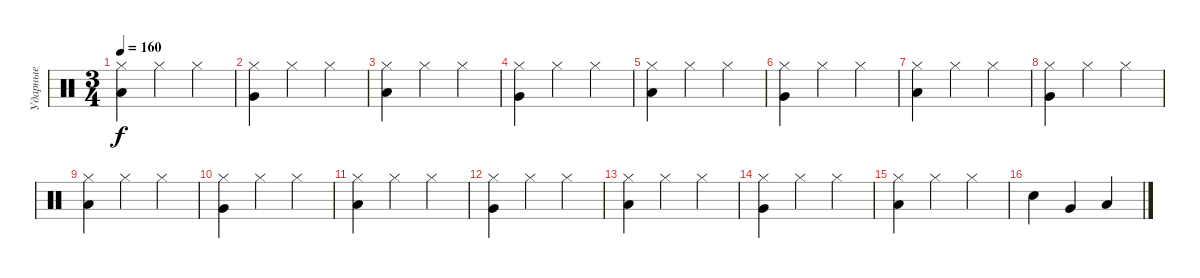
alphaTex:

\track ("Ударные" "Ударные") {instrument percussion}
\staff {score}
\articulation defaults
\ts (3 4)
\tempo 160
\clef neutral
\ks c
("Hi-Hat (closed)" "Low Floor Tom (hit)").4{dy f} "Hi-Hat (closed)".4 "Hi-Hat (closed)".4 |
("Hi-Hat (closed)" "Very Low Tom (hit)").4 "Hi-Hat (closed)".4 "Hi-Hat (closed)".4 |
("Hi-Hat (closed)" "Low Floor Tom (hit)").4 "Hi-Hat (closed)".4 "Hi-Hat (closed)".4 |
("Hi-Hat (closed)" "Very Low Tom (hit)").4 "Hi-Hat (closed)".4 "Hi-Hat (closed)".4 |
("Hi-Hat (closed)" "Low Floor Tom (hit)").4 "Hi-Hat (closed)".4 "Hi-Hat (closed)".4 |
("Hi-Hat (closed)" "Very Low Tom (hit)").4 "Hi-Hat (closed)".4 "Hi-Hat (closed)".4 |
("Hi-Hat (closed)" "Low Floor Tom (hit)").4 "Hi-Hat (closed)".4 "Hi-Hat (closed)".4 |
("Hi-Hat (closed)" "Very Low Tom (hit)").4 "Hi-Hat (closed)".4 "Hi-Hat (closed)".4 |
("Hi-Hat (closed)" "Low Floor Tom (hit)").4 "Hi-Hat (closed)".4 "Hi-Hat (closed)".4 |
("Hi-Hat (closed)" "Very Low Tom (hit)").4 "Hi-Hat (closed)".4 "Hi-Hat (closed)".4 |
("Hi-Hat (closed)" "Low Floor Tom (hit)").4 "Hi-Hat (closed)".4 "Hi-Hat (closed)".4 |
("Hi-Hat (closed)" "Very Low Tom (hit)").4 "Hi-Hat (closed)".4 "Hi-Hat (closed)".4 |
("Hi-Hat (closed)" "Low Floor Tom (hit)").4 "Hi-Hat (closed)".4 "Hi-Hat (closed)".4 |
("Hi-Hat (closed)" "Very Low Tom (hit)").4 "Hi-Hat (closed)".4 "Hi-Hat (closed)".4 |
("Hi-Hat (closed)" "Low Floor Tom (hit)").4 "Hi-Hat (closed)".4 "Hi-Hat (closed)".4 |
"Snare (hit) 2".4 "Very Low Tom (hit)".4 "Low Floor Tom (hit)".4
